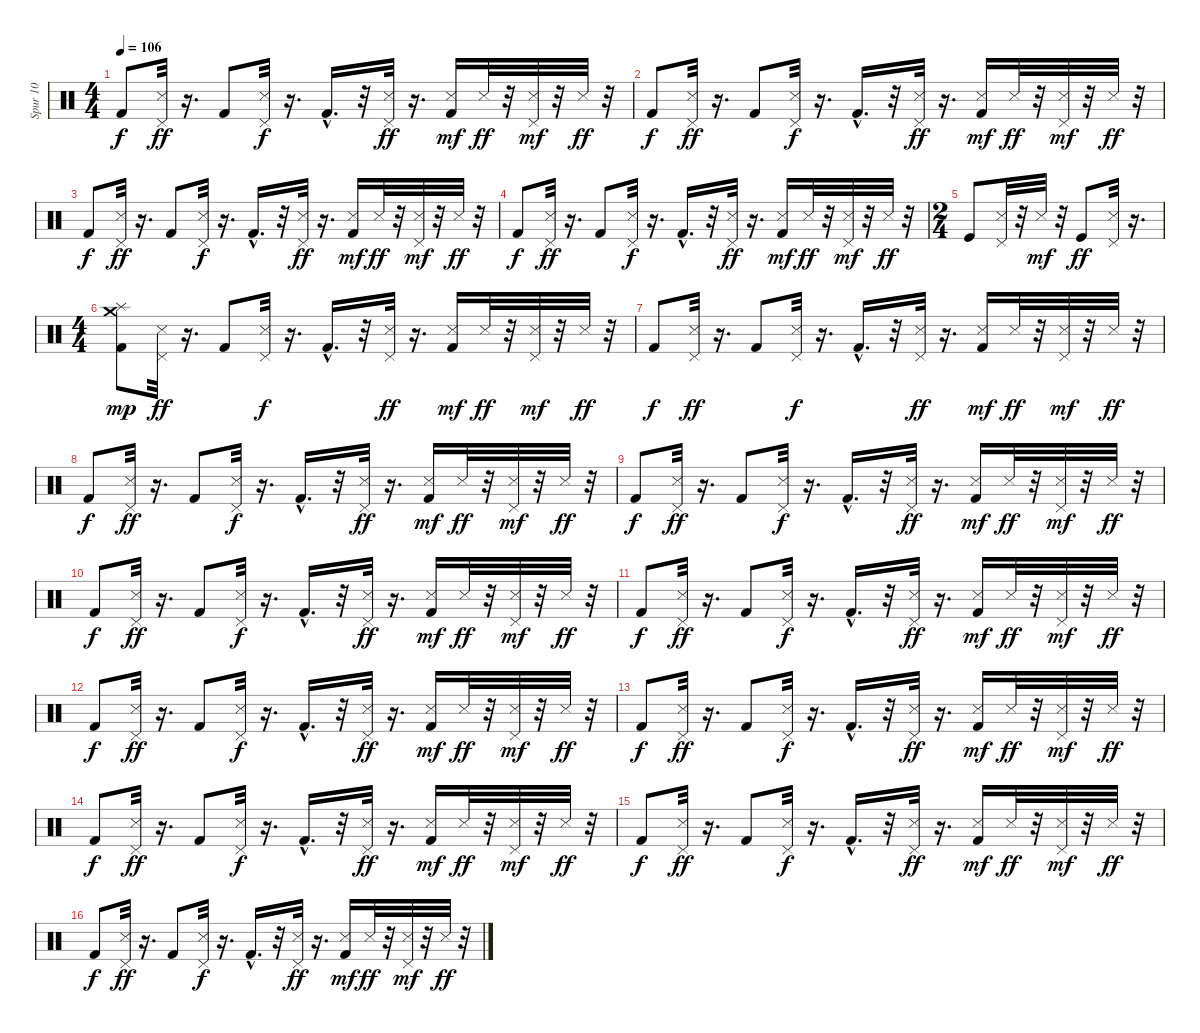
\track ("Spur 10" "Spur 10") {instrument percussion}
\staff {score}
\articulation defaults
\ts (4 4)
\tempo 106
\clef neutral
\ks c "Kick (hit) 2".8{dy f}
("Pedal Hi-Hat (hit)" "Snare (side stick) 3").32{dy ff} r.16{d} "Kick (hit) 2".8 ("Pedal Hi-Hat (hit)" "Snare (side stick) 3").32{dy f} r.16{d} "Kick (hit) 2"{hac}.16{d} r.32 ("Pedal Hi-Hat (hit)" "Snare (side stick) 3").32{dy ff} r.16{d} ("Kick (hit) 2" "Snare (side stick) 3").16{dy mf} "Snare (side stick) 3".32{dy ff} r.32 ("Pedal Hi-Hat (hit)" "Snare (side stick) 3").32{dy mf} r.32 "Snare (side stick) 3".32{dy ff} r.32 |
"Kick (hit) 2".8{dy f} ("Pedal Hi-Hat (hit)" "Snare (side stick) 3").32{dy ff} r.16{d} "Kick (hit) 2".8 ("Pedal Hi-Hat (hit)" "Snare (side stick) 3").32{dy f} r.16{d} "Kick (hit) 2"{hac}.16{d} r.32 ("Pedal Hi-Hat (hit)" "Snare (side stick) 3").32{dy ff} r.16{d} ("Kick (hit) 2" "Snare (side stick) 3").16{dy mf} "Snare (side stick) 3".32{dy ff} r.32 ("Pedal Hi-Hat (hit)" "Snare (side stick) 3").32{dy mf} r.32 "Snare (side stick) 3".32{dy ff} r.32 |
"Kick (hit) 2".8{dy f} ("Pedal Hi-Hat (hit)" "Snare (side stick) 3").32{dy ff} r.16{d} "Kick (hit) 2".8 ("Pedal Hi-Hat (hit)" "Snare (side stick) 3").32{dy f} r.16{d} "Kick (hit) 2"{hac}.16{d} r.32 ("Pedal Hi-Hat (hit)" "Snare (side stick) 3").32{dy ff} r.16{d} ("Kick (hit) 2" "Snare (side stick) 3").16{dy mf} "Snare (side stick) 3".32{dy ff} r.32 ("Pedal Hi-Hat (hit)" "Snare (side stick) 3").32{dy mf} r.32 "Snare (side stick) 3".32{dy ff} r.32 |
"Kick (hit) 2".8{dy f} ("Pedal Hi-Hat (hit)" "Snare (side stick) 3").32{dy ff} r.16{d} "Kick (hit) 2".8 ("Pedal Hi-Hat (hit)" "Snare (side stick) 3").32{dy f} r.16{d} "Kick (hit) 2"{hac}.16{d} r.32 ("Pedal Hi-Hat (hit)" "Snare (side stick) 3").32{dy ff} r.16{d} ("Kick (hit) 2" "Snare (side stick) 3").16{dy mf} "Snare (side stick) 3".32{dy ff} r.32 ("Pedal Hi-Hat (hit)" "Snare (side stick) 3").32{dy mf} r.32 "Snare (side stick) 3".32{dy ff} r.32 |
\ts (2 4)
"Kick (hit)".8 ("Snare (side stick) 3" "Pedal Hi-Hat (hit)").32 r.32 "Snare (side stick) 3".32{dy mf} r.32 "Kick (hit)".8{dy ff} ("Snare (side stick) 3" "Pedal Hi-Hat (hit)").32 r.16{d} |
\ts (4 4)
("Kick (hit) 2" "Splash (hit)" "Crash medium (hit)").8{dy mp} ("Pedal Hi-Hat (hit)" "Snare (side stick) 3").32{dy ff} r.16{d} "Kick (hit) 2".8 ("Pedal Hi-Hat (hit)" "Snare (side stick) 3").32{dy f} r.16{d} "Kick (hit) 2"{hac}.16{d} r.32 ("Pedal Hi-Hat (hit)" "Snare (side stick) 3").32{dy ff} r.16{d} ("Kick (hit) 2" "Snare (side stick) 3").16{dy mf} "Snare (side stick) 3".32{dy ff} r.32 ("Pedal Hi-Hat (hit)" "Snare (side stick) 3").32{dy mf} r.32 "Snare (side stick) 3".32{dy ff} r.32 |
"Kick (hit) 2".8{dy f} ("Pedal Hi-Hat (hit)" "Snare (side stick) 3").32{dy ff} r.16{d} "Kick (hit) 2".8 ("Pedal Hi-Hat (hit)" "Snare (side stick) 3").32{dy f} r.16{d} "Kick (hit) 2"{hac}.16{d} r.32 ("Pedal Hi-Hat (hit)" "Snare (side stick) 3").32{dy ff} r.16{d} ("Kick (hit) 2" "Snare (side stick) 3").16{dy mf} "Snare (side stick) 3".32{dy ff} r.32 ("Pedal Hi-Hat (hit)" "Snare (side stick) 3").32{dy mf} r.32 "Snare (side stick) 3".32{dy ff} r.32 |
"Kick (hit) 2".8{dy f} ("Pedal Hi-Hat (hit)" "Snare (side stick) 3").32{dy ff} r.16{d} "Kick (hit) 2".8 ("Pedal Hi-Hat (hit)" "Snare (side stick) 3").32{dy f} r.16{d} "Kick (hit) 2"{hac}.16{d} r.32 ("Pedal Hi-Hat (hit)" "Snare (side stick) 3").32{dy ff} r.16{d} ("Kick (hit) 2" "Snare (side stick) 3").16{dy mf} "Snare (side stick) 3".32{dy ff} r.32 ("Pedal Hi-Hat (hit)" "Snare (side stick) 3").32{dy mf} r.32 "Snare (side stick) 3".32{dy ff} r.32 |
"Kick (hit) 2".8{dy f} ("Pedal Hi-Hat (hit)" "Snare (side stick) 3").32{dy ff} r.16{d} "Kick (hit) 2".8 ("Pedal Hi-Hat (hit)" "Snare (side stick) 3").32{dy f} r.16{d} "Kick (hit) 2"{hac}.16{d} r.32 ("Pedal Hi-Hat (hit)" "Snare (side stick) 3").32{dy ff} r.16{d} ("Kick (hit) 2" "Snare (side stick) 3").16{dy mf} "Snare (side stick) 3".32{dy ff} r.32 ("Pedal Hi-Hat (hit)" "Snare (side stick) 3").32{dy mf} r.32 "Snare (side stick) 3".32{dy ff} r.32 |
"Kick (hit) 2".8{dy f} ("Pedal Hi-Hat (hit)" "Snare (side stick) 3").32{dy ff} r.16{d} "Kick (hit) 2".8 ("Pedal Hi-Hat (hit)" "Snare (side stick) 3").32{dy f} r.16{d} "Kick (hit) 2"{hac}.16{d} r.32 ("Pedal Hi-Hat (hit)" "Snare (side stick) 3").32{dy ff} r.16{d} ("Kick (hit) 2" "Snare (side stick) 3").16{dy mf} "Snare (side stick) 3".32{dy ff} r.32 ("Pedal Hi-Hat (hit)" "Snare (side stick) 3").32{dy mf} r.32 "Snare (side stick) 3".32{dy ff} r.32 |
"Kick (hit) 2".8{dy f} ("Pedal Hi-Hat (hit)" "Snare (side stick) 3").32{dy ff} r.16{d} "Kick (hit) 2".8 ("Pedal Hi-Hat (hit)" "Snare (side stick) 3").32{dy f} r.16{d} "Kick (hit) 2"{hac}.16{d} r.32 ("Pedal Hi-Hat (hit)" "Snare (side stick) 3").32{dy ff} r.16{d} ("Kick (hit) 2" "Snare (side stick) 3").16{dy mf} "Snare (side stick) 3".32{dy ff} r.32 ("Pedal Hi-Hat (hit)" "Snare (side stick) 3").32{dy mf} r.32 "Snare (side stick) 3".32{dy ff} r.32 |
"Kick (hit) 2".8{dy f} ("Pedal Hi-Hat (hit)" "Snare (side stick) 3").32{dy ff} r.16{d} "Kick (hit) 2".8 ("Pedal Hi-Hat (hit)" "Snare (side stick) 3").32{dy f} r.16{d} "Kick (hit) 2"{hac}.16{d} r.32 ("Pedal Hi-Hat (hit)" "Snare (side stick) 3").32{dy ff} r.16{d} ("Kick (hit) 2" "Snare (side stick) 3").16{dy mf} "Snare (side stick) 3".32{dy ff} r.32 ("Pedal Hi-Hat (hit)" "Snare (side stick) 3").32{dy mf} r.32 "Snare (side stick) 3".32{dy ff} r.32 |
"Kick (hit) 2".8{dy f} ("Pedal Hi-Hat (hit)" "Snare (side stick) 3").32{dy ff} r.16{d} "Kick (hit) 2".8 ("Pedal Hi-Hat (hit)" "Snare (side stick) 3").32{dy f} r.16{d} "Kick (hit) 2"{hac}.16{d} r.32 ("Pedal Hi-Hat (hit)" "Snare (side stick) 3").32{dy ff} r.16{d} ("Kick (hit) 2" "Snare (side stick) 3").16{dy mf} "Snare (side stick) 3".32{dy ff} r.32 ("Pedal Hi-Hat (hit)" "Snare (side stick) 3").32{dy mf} r.32 "Snare (side stick) 3".32{dy ff} r.32 |
"Kick (hit) 2".8{dy f} ("Pedal Hi-Hat (hit)" "Snare (side stick) 3").32{dy ff} r.16{d} "Kick (hit) 2".8 ("Pedal Hi-Hat (hit)" "Snare (side stick) 3").32{dy f} r.16{d} "Kick (hit) 2"{hac}.16{d} r.32 ("Pedal Hi-Hat (hit)" "Snare (side stick) 3").32{dy ff} r.16{d} ("Kick (hit) 2" "Snare (side stick) 3").16{dy mf} "Snare (side stick) 3".32{dy ff} r.32 ("Pedal Hi-Hat (hit)" "Snare (side stick) 3").32{dy mf} r.32 "Snare (side stick) 3".32{dy ff} r.32 |
"Kick (hit) 2".8{dy f} ("Pedal Hi-Hat (hit)" "Snare (side stick) 3").32{dy ff} r.16{d} "Kick (hit) 2".8 ("Pedal Hi-Hat (hit)" "Snare (side stick) 3").32{dy f} r.16{d} "Kick (hit) 2"{hac}.16{d} r.32 ("Pedal Hi-Hat (hit)" "Snare (side stick) 3").32{dy ff} r.16{d} ("Kick (hit) 2" "Snare (side stick) 3").16{dy mf} "Snare (side stick) 3".32{dy ff} r.32 ("Pedal Hi-Hat (hit)" "Snare (side stick) 3").32{dy mf} r.32 "Snare (side stick) 3".32{dy ff} r.32 |
"Kick (hit) 2".8{dy f} ("Pedal Hi-Hat (hit)" "Snare (side stick) 3").32{dy ff} r.16{d} "Kick (hit) 2".8 ("Pedal Hi-Hat (hit)" "Snare (side stick) 3").32{dy f} r.16{d} "Kick (hit) 2"{hac}.16{d} r.32 ("Pedal Hi-Hat (hit)" "Snare (side stick) 3").32{dy ff} r.16{d} ("Kick (hit) 2" "Snare (side stick) 3").16{dy mf} "Snare (side stick) 3".32{dy ff} r.32 ("Pedal Hi-Hat (hit)" "Snare (side stick) 3").32{dy mf} r.32 "Snare (side stick) 3".32{dy ff} r.32
